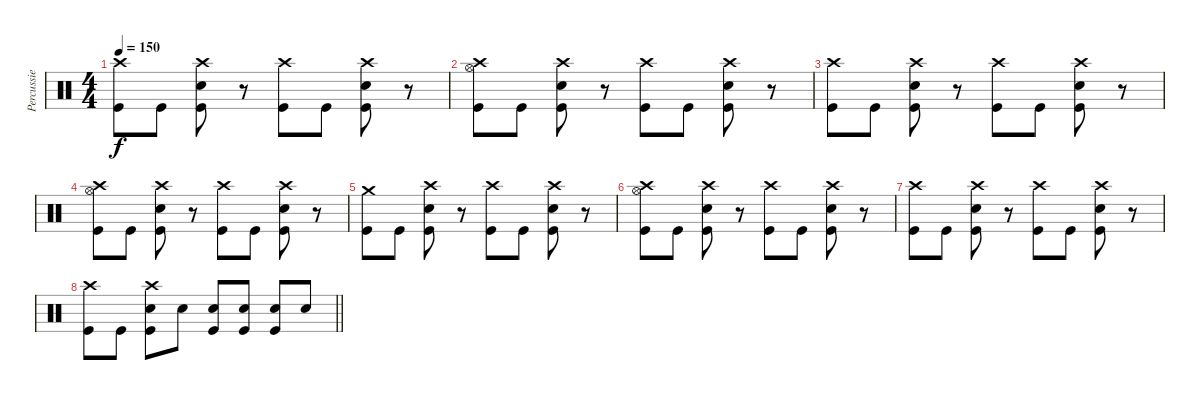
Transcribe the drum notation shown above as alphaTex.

\track ("Percussie" "Percussie") {instrument percussion}
\staff {score}
\articulation defaults
\ts (4 4)
\tempo 150
\clef neutral
\ks c
("Crash high (hit)" "Kick (hit)").8{dy f} "Kick (hit)".8 ("Crash high (hit)" "Snare (hit) 2" "Kick (hit)").8 r.8 ("Crash high (hit)" "Kick (hit)").8 "Kick (hit)".8 ("Crash high (hit)" "Snare (hit) 2" "Kick (hit)").8 r.8 |
("Crash high (hit)" "Hi-Hat (open)" "Kick (hit)").8 "Kick (hit)".8 ("Crash high (hit)" "Snare (hit) 2" "Kick (hit)").8 r.8 ("Crash high (hit)" "Kick (hit)").8 "Kick (hit)".8 ("Crash high (hit)" "Snare (hit) 2" "Kick (hit)").8 r.8 |
("Crash high (hit)" "Kick (hit)").8 "Kick (hit)".8 ("Crash high (hit)" "Snare (hit) 2" "Kick (hit)").8 r.8 ("Crash high (hit)" "Kick (hit)").8 "Kick (hit)".8 ("Crash high (hit)" "Snare (hit) 2" "Kick (hit)").8 r.8 |
("Crash high (hit)" "Hi-Hat (open)" "Kick (hit)").8 "Kick (hit)".8 ("Crash high (hit)" "Snare (hit) 2" "Kick (hit)").8 r.8 ("Crash high (hit)" "Kick (hit)").8 "Kick (hit)".8 ("Crash high (hit)" "Snare (hit) 2" "Kick (hit)").8 r.8 |
("Crash medium (hit)" "Kick (hit)").8 "Kick (hit)".8 ("Crash high (hit)" "Snare (hit) 2" "Kick (hit)").8 r.8 ("Crash high (hit)" "Kick (hit)").8 "Kick (hit)".8 ("Crash high (hit)" "Snare (hit) 2" "Kick (hit)").8 r.8 |
("Crash high (hit)" "Hi-Hat (open)" "Kick (hit)").8 "Kick (hit)".8 ("Crash high (hit)" "Snare (hit) 2" "Kick (hit)").8 r.8 ("Crash high (hit)" "Kick (hit)").8 "Kick (hit)".8 ("Crash high (hit)" "Snare (hit) 2" "Kick (hit)").8 r.8 |
("Crash high (hit)" "Kick (hit)").8 "Kick (hit)".8 ("Crash high (hit)" "Snare (hit) 2" "Kick (hit)").8 r.8 ("Crash high (hit)" "Kick (hit)").8 "Kick (hit)".8 ("Crash high (hit)" "Snare (hit) 2" "Kick (hit)").8 r.8 |
\barLineRight lightlight
("Crash high (hit)" "Kick (hit)").8 "Kick (hit)".8 ("Crash high (hit)" "Snare (hit) 2" "Kick (hit)").8 "Snare (hit) 2".8 ("Snare (hit) 2" "Kick (hit)").8 ("Snare (hit) 2" "Kick (hit)").8 ("Snare (hit) 2" "Kick (hit)").8 "Snare (hit) 2".8
